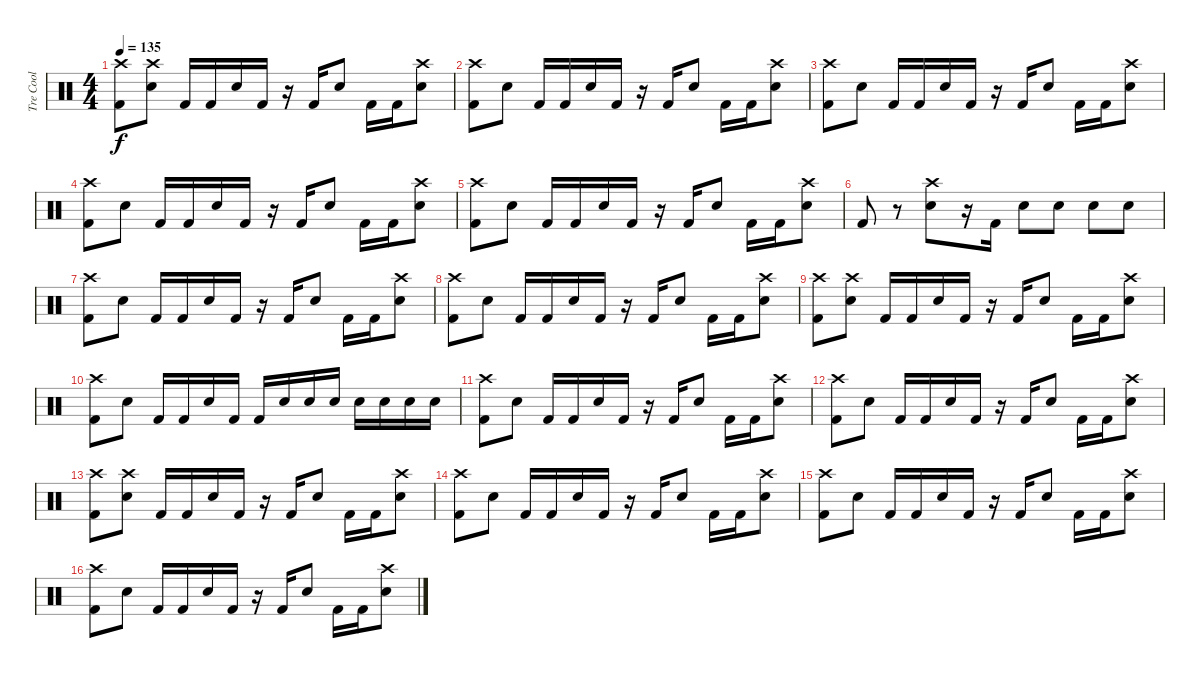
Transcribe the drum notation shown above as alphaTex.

\track ("Tre Cool" "Tre Cool") {instrument percussion}
\staff {score}
\articulation defaults
\ts (4 4)
\tempo 135
\clef neutral
\ks c
("Kick (hit) 2" "Crash high (hit)").8{dy f} ("Electric Snare (hit)" "Crash high (hit)").8 "Kick (hit) 2".16 "Kick (hit) 2".16 "Electric Snare (hit)".16 "Kick (hit) 2".16 r.16 "Kick (hit) 2".16 "Electric Snare (hit)".8 "Kick (hit) 2".16 "Kick (hit) 2".16 ("Electric Snare (hit)" "Crash high (hit)").8 |
("Kick (hit) 2" "Crash high (hit)").8 "Electric Snare (hit)".8 "Kick (hit) 2".16 "Kick (hit) 2".16 "Electric Snare (hit)".16 "Kick (hit) 2".16 r.16 "Kick (hit) 2".16 "Electric Snare (hit)".8 "Kick (hit) 2".16 "Kick (hit) 2".16 ("Electric Snare (hit)" "Crash high (hit)").8 |
("Kick (hit) 2" "Crash high (hit)").8 "Electric Snare (hit)".8 "Kick (hit) 2".16 "Kick (hit) 2".16 "Electric Snare (hit)".16 "Kick (hit) 2".16 r.16 "Kick (hit) 2".16 "Electric Snare (hit)".8 "Kick (hit) 2".16 "Kick (hit) 2".16 ("Electric Snare (hit)" "Crash high (hit)").8 |
("Kick (hit) 2" "Crash high (hit)").8 "Electric Snare (hit)".8 "Kick (hit) 2".16 "Kick (hit) 2".16 "Electric Snare (hit)".16 "Kick (hit) 2".16 r.16 "Kick (hit) 2".16 "Electric Snare (hit)".8 "Kick (hit) 2".16 "Kick (hit) 2".16 ("Electric Snare (hit)" "Crash high (hit)").8 |
("Kick (hit) 2" "Crash high (hit)").8 "Electric Snare (hit)".8 "Kick (hit) 2".16 "Kick (hit) 2".16 "Electric Snare (hit)".16 "Kick (hit) 2".16 r.16 "Kick (hit) 2".16 "Electric Snare (hit)".8 "Kick (hit) 2".16 "Kick (hit) 2".16 ("Electric Snare (hit)" "Crash high (hit)").8 |
"Kick (hit) 2".8 r.8 ("Electric Snare (hit)" "Crash high (hit)").8 r.16 "Kick (hit) 2".16 "Electric Snare (hit)".8 "Electric Snare (hit)".8 "Electric Snare (hit)".8 "Electric Snare (hit)".8 |
("Kick (hit) 2" "Crash high (hit)").8 "Electric Snare (hit)".8 "Kick (hit) 2".16 "Kick (hit) 2".16 "Electric Snare (hit)".16 "Kick (hit) 2".16 r.16 "Kick (hit) 2".16 "Electric Snare (hit)".8 "Kick (hit) 2".16 "Kick (hit) 2".16 ("Electric Snare (hit)" "Crash high (hit)").8 |
("Kick (hit) 2" "Crash high (hit)").8 "Electric Snare (hit)".8 "Kick (hit) 2".16 "Kick (hit) 2".16 "Electric Snare (hit)".16 "Kick (hit) 2".16 r.16 "Kick (hit) 2".16 "Electric Snare (hit)".8 "Kick (hit) 2".16 "Kick (hit) 2".16 ("Electric Snare (hit)" "Crash high (hit)").8 |
("Kick (hit) 2" "Crash high (hit)").8 ("Electric Snare (hit)" "Crash high (hit)").8 "Kick (hit) 2".16 "Kick (hit) 2".16 "Electric Snare (hit)".16 "Kick (hit) 2".16 r.16 "Kick (hit) 2".16 "Electric Snare (hit)".8 "Kick (hit) 2".16 "Kick (hit) 2".16 ("Electric Snare (hit)" "Crash high (hit)").8 |
("Kick (hit) 2" "Crash high (hit)").8 "Electric Snare (hit)".8 "Kick (hit) 2".16 "Kick (hit) 2".16 "Electric Snare (hit)".16 "Kick (hit) 2".16 "Kick (hit) 2".16 "Electric Snare (hit)".16 "Electric Snare (hit)".16 "Electric Snare (hit)".16 "Electric Snare (hit)".16 "Electric Snare (hit)".16 "Electric Snare (hit)".16 "Electric Snare (hit)".16 |
("Kick (hit) 2" "Crash high (hit)").8 "Electric Snare (hit)".8 "Kick (hit) 2".16 "Kick (hit) 2".16 "Electric Snare (hit)".16 "Kick (hit) 2".16 r.16 "Kick (hit) 2".16 "Electric Snare (hit)".8 "Kick (hit) 2".16 "Kick (hit) 2".16 ("Electric Snare (hit)" "Crash high (hit)").8 |
("Kick (hit) 2" "Crash high (hit)").8 "Electric Snare (hit)".8 "Kick (hit) 2".16 "Kick (hit) 2".16 "Electric Snare (hit)".16 "Kick (hit) 2".16 r.16 "Kick (hit) 2".16 "Electric Snare (hit)".8 "Kick (hit) 2".16 "Kick (hit) 2".16 ("Electric Snare (hit)" "Crash high (hit)").8 |
("Kick (hit) 2" "Crash high (hit)").8 ("Electric Snare (hit)" "Crash high (hit)").8 "Kick (hit) 2".16 "Kick (hit) 2".16 "Electric Snare (hit)".16 "Kick (hit) 2".16 r.16 "Kick (hit) 2".16 "Electric Snare (hit)".8 "Kick (hit) 2".16 "Kick (hit) 2".16 ("Electric Snare (hit)" "Crash high (hit)").8 |
("Kick (hit) 2" "Crash high (hit)").8 "Electric Snare (hit)".8 "Kick (hit) 2".16 "Kick (hit) 2".16 "Electric Snare (hit)".16 "Kick (hit) 2".16 r.16 "Kick (hit) 2".16 "Electric Snare (hit)".8 "Kick (hit) 2".16 "Kick (hit) 2".16 ("Electric Snare (hit)" "Crash high (hit)").8 |
("Kick (hit) 2" "Crash high (hit)").8 "Electric Snare (hit)".8 "Kick (hit) 2".16 "Kick (hit) 2".16 "Electric Snare (hit)".16 "Kick (hit) 2".16 r.16 "Kick (hit) 2".16 "Electric Snare (hit)".8 "Kick (hit) 2".16 "Kick (hit) 2".16 ("Electric Snare (hit)" "Crash high (hit)").8 |
("Kick (hit) 2" "Crash high (hit)").8 "Electric Snare (hit)".8 "Kick (hit) 2".16 "Kick (hit) 2".16 "Electric Snare (hit)".16 "Kick (hit) 2".16 r.16 "Kick (hit) 2".16 "Electric Snare (hit)".8 "Kick (hit) 2".16 "Kick (hit) 2".16 ("Electric Snare (hit)" "Crash high (hit)").8
